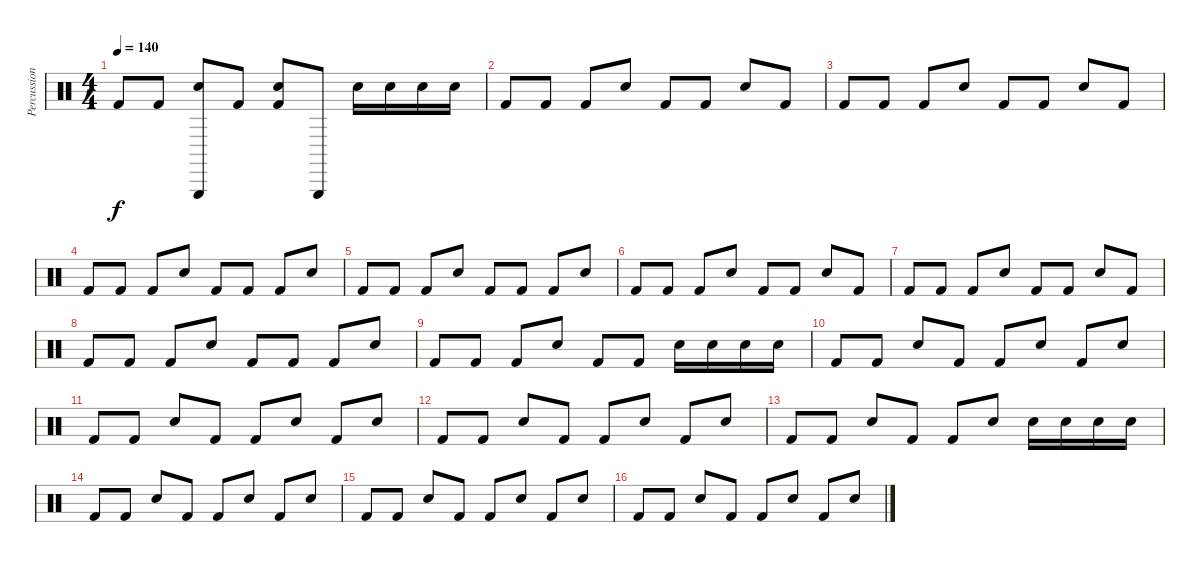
\track ("Percussion" "Percussion") {instrument percussion}
\staff {score}
\articulation defaults
\ts (4 4)
\tempo 140
\clef neutral
\ks c "Kick (hit) 2".8{dy f} "Kick (hit) 2".8
("Snare (hit) 2" "Triangle (hit)").8 "Kick (hit) 2".8 ("Kick (hit) 2" "Snare (hit) 2").8 "Triangle (hit)".8 "Snare (hit) 2".16 "Snare (hit) 2".16 "Snare (hit) 2".16 "Snare (hit) 2".16 |
"Kick (hit) 2".8 "Kick (hit) 2".8 "Kick (hit) 2".8 "Snare (hit) 2".8 "Kick (hit) 2".8 "Kick (hit) 2".8 "Snare (hit) 2".8 "Kick (hit) 2".8 |
"Kick (hit) 2".8 "Kick (hit) 2".8 "Kick (hit) 2".8 "Snare (hit) 2".8 "Kick (hit) 2".8 "Kick (hit) 2".8 "Snare (hit) 2".8 "Kick (hit) 2".8 |
"Kick (hit) 2".8 "Kick (hit) 2".8 "Kick (hit) 2".8 "Snare (hit) 2".8 "Kick (hit) 2".8 "Kick (hit) 2".8 "Kick (hit) 2".8 "Snare (hit) 2".8 |
"Kick (hit) 2".8 "Kick (hit) 2".8 "Kick (hit) 2".8 "Snare (hit) 2".8 "Kick (hit) 2".8 "Kick (hit) 2".8 "Kick (hit) 2".8 "Snare (hit) 2".8 |
"Kick (hit) 2".8 "Kick (hit) 2".8 "Kick (hit) 2".8 "Snare (hit) 2".8 "Kick (hit) 2".8 "Kick (hit) 2".8 "Snare (hit) 2".8 "Kick (hit) 2".8 |
"Kick (hit) 2".8 "Kick (hit) 2".8 "Kick (hit) 2".8 "Snare (hit) 2".8 "Kick (hit) 2".8 "Kick (hit) 2".8 "Snare (hit) 2".8 "Kick (hit) 2".8 |
"Kick (hit) 2".8 "Kick (hit) 2".8 "Kick (hit) 2".8 "Snare (hit) 2".8 "Kick (hit) 2".8 "Kick (hit) 2".8 "Kick (hit) 2".8 "Snare (hit) 2".8 |
"Kick (hit) 2".8 "Kick (hit) 2".8 "Kick (hit) 2".8 "Snare (hit) 2".8 "Kick (hit) 2".8 "Kick (hit) 2".8 "Snare (hit) 2".16 "Snare (hit) 2".16 "Snare (hit) 2".16 "Snare (hit) 2".16 |
"Kick (hit) 2".8 "Kick (hit) 2".8 "Snare (hit) 2".8 "Kick (hit) 2".8 "Kick (hit) 2".8 "Snare (hit) 2".8 "Kick (hit) 2".8 "Snare (hit) 2".8 |
"Kick (hit) 2".8 "Kick (hit) 2".8 "Snare (hit) 2".8 "Kick (hit) 2".8 "Kick (hit) 2".8 "Snare (hit) 2".8 "Kick (hit) 2".8 "Snare (hit) 2".8 |
"Kick (hit) 2".8 "Kick (hit) 2".8 "Snare (hit) 2".8 "Kick (hit) 2".8 "Kick (hit) 2".8 "Snare (hit) 2".8 "Kick (hit) 2".8 "Snare (hit) 2".8 |
"Kick (hit) 2".8 "Kick (hit) 2".8 "Snare (hit) 2".8 "Kick (hit) 2".8 "Kick (hit) 2".8 "Snare (hit) 2".8 "Snare (hit) 2".16 "Snare (hit) 2".16 "Snare (hit) 2".16 "Snare (hit) 2".16 |
"Kick (hit) 2".8 "Kick (hit) 2".8 "Snare (hit) 2".8 "Kick (hit) 2".8 "Kick (hit) 2".8 "Snare (hit) 2".8 "Kick (hit) 2".8 "Snare (hit) 2".8 |
"Kick (hit) 2".8 "Kick (hit) 2".8 "Snare (hit) 2".8 "Kick (hit) 2".8 "Kick (hit) 2".8 "Snare (hit) 2".8 "Kick (hit) 2".8 "Snare (hit) 2".8 |
"Kick (hit) 2".8 "Kick (hit) 2".8 "Snare (hit) 2".8 "Kick (hit) 2".8 "Kick (hit) 2".8 "Snare (hit) 2".8 "Kick (hit) 2".8 "Snare (hit) 2".8
